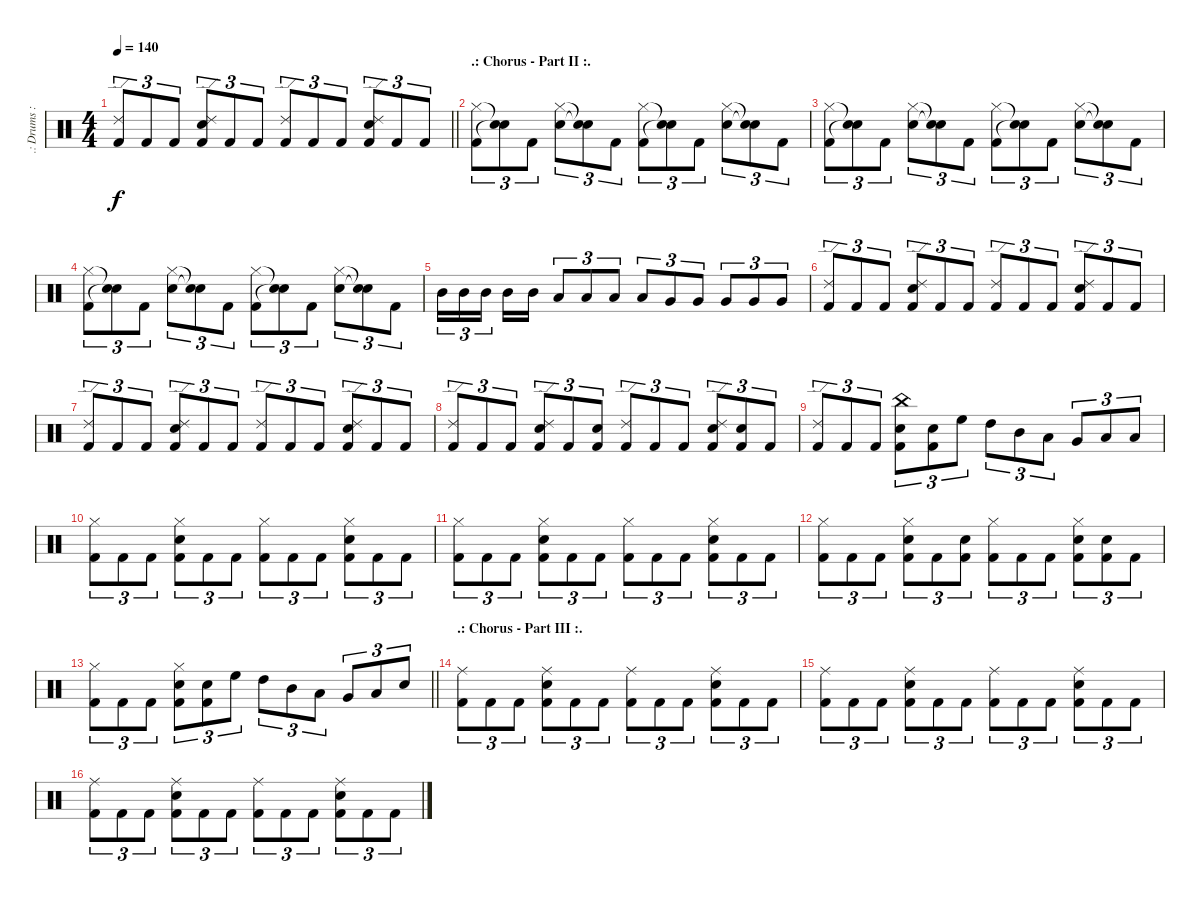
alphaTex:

\track (".: Drums :." ".: Drums :") {instrument percussion}
\staff {score}
\articulation defaults
\ts (4 4)
\tempo 140
\clef neutral
\barLineRight lightlight
\ks c
("Ride (edge) 2" "Kick (hit) 2").8{tu (3 2) dy f} "Kick (hit) 2".8{tu (3 2)} "Kick (hit) 2".8{tu (3 2)} ("Ride (edge) 2" "Snare (hit) 2" "Kick (hit) 2").8{tu (3 2)} "Kick (hit) 2".8{tu (3 2)} "Kick (hit) 2".8{tu (3 2)} ("Ride (edge) 2" "Kick (hit) 2").8{tu (3 2)} "Kick (hit) 2".8{tu (3 2)} "Kick (hit) 2".8{tu (3 2)} ("Ride (edge) 2" "Snare (hit) 2" "Kick (hit) 2").8{tu (3 2)} "Kick (hit) 2".8{tu (3 2)} "Kick (hit) 2".8{tu (3 2)} |
\section ("" ".: Chorus - Part II :.")
("Hi-Hat (closed)" "Kick (hit) 2").8{tu (3 2)} ("Snare (hit)"{t} "Snare (hit)"{t}).8{tu (3 2)} "Kick (hit) 2".8{tu (3 2)} ("Hi-Hat (closed)" "Snare (hit) 2").8{tu (3 2)} ("Snare (hit)"{t} "Snare (hit)"{t}).8{tu (3 2)} "Kick (hit) 2".8{tu (3 2)} ("Hi-Hat (closed)" "Kick (hit) 2").8{tu (3 2)} ("Snare (hit)"{t} "Snare (hit)"{t}).8{tu (3 2)} "Kick (hit) 2".8{tu (3 2)} ("Hi-Hat (closed)" "Snare (hit) 2").8{tu (3 2)} ("Snare (hit)"{t} "Snare (hit)"{t}).8{tu (3 2)} "Kick (hit) 2".8{tu (3 2)} |
("Hi-Hat (closed)" "Kick (hit) 2").8{tu (3 2)} ("Snare (hit)"{t} "Snare (hit)"{t}).8{tu (3 2)} "Kick (hit) 2".8{tu (3 2)} ("Hi-Hat (closed)" "Snare (hit) 2").8{tu (3 2)} ("Snare (hit)"{t} "Snare (hit)"{t}).8{tu (3 2)} "Kick (hit) 2".8{tu (3 2)} ("Hi-Hat (closed)" "Kick (hit) 2").8{tu (3 2)} ("Snare (hit)"{t} "Snare (hit)"{t}).8{tu (3 2)} "Kick (hit) 2".8{tu (3 2)} ("Hi-Hat (closed)" "Snare (hit) 2").8{tu (3 2)} ("Snare (hit)"{t} "Snare (hit)"{t}).8{tu (3 2)} "Kick (hit) 2".8{tu (3 2)} |
("Hi-Hat (closed)" "Kick (hit) 2").8{tu (3 2)} ("Snare (hit)"{t} "Snare (hit)"{t}).8{tu (3 2)} "Kick (hit) 2".8{tu (3 2)} ("Hi-Hat (closed)" "Snare (hit) 2").8{tu (3 2)} ("Snare (hit)"{t} "Snare (hit)"{t}).8{tu (3 2)} "Kick (hit) 2".8{tu (3 2)} ("Hi-Hat (closed)" "Kick (hit) 2").8{tu (3 2)} ("Snare (hit)"{t} "Snare (hit)"{t}).8{tu (3 2)} "Kick (hit) 2".8{tu (3 2)} ("Hi-Hat (closed)" "Snare (hit) 2").8{tu (3 2)} ("Snare (hit)"{t} "Snare (hit)"{t}).8{tu (3 2)} "Kick (hit) 2".8{tu (3 2)} |
"Mid Tom (hit)".16{tu (3 2)} "Mid Tom (hit)".16{tu (3 2)} "Mid Tom (hit)".16{tu (3 2)} "Mid Tom (hit)".16 "Mid Tom (hit)".16 "Low Tom (hit)".8{tu (3 2)} "Low Tom (hit)".8{tu (3 2)} "Low Tom (hit)".8{tu (3 2)} "Low Tom (hit)".8{tu (3 2)} "Very Low Tom (hit)".8{tu (3 2)} "Very Low Tom (hit)".8{tu (3 2)} "Very Low Tom (hit)".8{tu (3 2)} "Very Low Tom (hit)".8{tu (3 2)} "Very Low Tom (hit)".8{tu (3 2)} |
("Ride (edge) 2" "Kick (hit) 2").8{tu (3 2)} "Kick (hit) 2".8{tu (3 2)} "Kick (hit) 2".8{tu (3 2)} ("Ride (edge) 2" "Snare (hit) 2" "Kick (hit) 2").8{tu (3 2)} "Kick (hit) 2".8{tu (3 2)} "Kick (hit) 2".8{tu (3 2)} ("Ride (edge) 2" "Kick (hit) 2").8{tu (3 2)} "Kick (hit) 2".8{tu (3 2)} "Kick (hit) 2".8{tu (3 2)} ("Ride (edge) 2" "Snare (hit) 2" "Kick (hit) 2").8{tu (3 2)} "Kick (hit) 2".8{tu (3 2)} "Kick (hit) 2".8{tu (3 2)} |
("Ride (edge) 2" "Kick (hit) 2").8{tu (3 2)} "Kick (hit) 2".8{tu (3 2)} "Kick (hit) 2".8{tu (3 2)} ("Ride (edge) 2" "Snare (hit) 2" "Kick (hit) 2").8{tu (3 2)} "Kick (hit) 2".8{tu (3 2)} "Kick (hit) 2".8{tu (3 2)} ("Ride (edge) 2" "Kick (hit) 2").8{tu (3 2)} "Kick (hit) 2".8{tu (3 2)} "Kick (hit) 2".8{tu (3 2)} ("Ride (edge) 2" "Snare (hit) 2" "Kick (hit) 2").8{tu (3 2)} "Kick (hit) 2".8{tu (3 2)} "Kick (hit) 2".8{tu (3 2)} |
("Ride (edge) 2" "Kick (hit) 2").8{tu (3 2)} "Kick (hit) 2".8{tu (3 2)} "Kick (hit) 2".8{tu (3 2)} ("Ride (edge) 2" "Snare (hit) 2" "Kick (hit) 2").8{tu (3 2)} "Kick (hit) 2".8{tu (3 2)} ("Snare (hit) 2" "Kick (hit) 2").8{tu (3 2)} ("Ride (edge) 2" "Kick (hit) 2").8{tu (3 2)} "Kick (hit) 2".8{tu (3 2)} "Kick (hit) 2".8{tu (3 2)} ("Ride (edge) 2" "Snare (hit) 2" "Kick (hit) 2").8{tu (3 2)} ("Snare (hit) 2" "Kick (hit) 2").8{tu (3 2)} "Kick (hit) 2".8{tu (3 2)} |
("Ride (edge) 2" "Kick (hit) 2").8{tu (3 2)} "Kick (hit) 2".8{tu (3 2)} "Kick (hit) 2".8{tu (3 2)} ("China (hit)" "Snare (hit) 2" "Kick (hit) 2").8{tu (3 2)} ("Snare (hit) 2" "Kick (hit) 2").8{tu (3 2)} "High Floor Tom (hit)".8{tu (3 2)} "High Tom (hit)".8{tu (3 2)} "Mid Tom (hit)".8{tu (3 2)} "Low Tom (hit)".8{tu (3 2)} "Very Low Tom (hit)".8{tu (3 2)} "Low Floor Tom (hit)".8{tu (3 2)} "Low Floor Tom (hit)".8{tu (3 2)} |
("Hi-Hat (closed)" "Kick (hit) 2").8{tu (3 2)} "Kick (hit) 2".8{tu (3 2)} "Kick (hit) 2".8{tu (3 2)} ("Hi-Hat (closed)" "Snare (hit) 2" "Kick (hit) 2").8{tu (3 2)} "Kick (hit) 2".8{tu (3 2)} "Kick (hit) 2".8{tu (3 2)} ("Hi-Hat (closed)" "Kick (hit) 2").8{tu (3 2)} "Kick (hit) 2".8{tu (3 2)} "Kick (hit) 2".8{tu (3 2)} ("Hi-Hat (closed)" "Snare (hit) 2" "Kick (hit) 2").8{tu (3 2)} "Kick (hit) 2".8{tu (3 2)} "Kick (hit) 2".8{tu (3 2)} |
("Hi-Hat (closed)" "Kick (hit) 2").8{tu (3 2)} "Kick (hit) 2".8{tu (3 2)} "Kick (hit) 2".8{tu (3 2)} ("Hi-Hat (closed)" "Snare (hit) 2" "Kick (hit) 2").8{tu (3 2)} "Kick (hit) 2".8{tu (3 2)} "Kick (hit) 2".8{tu (3 2)} ("Hi-Hat (closed)" "Kick (hit) 2").8{tu (3 2)} "Kick (hit) 2".8{tu (3 2)} "Kick (hit) 2".8{tu (3 2)} ("Hi-Hat (closed)" "Snare (hit) 2" "Kick (hit) 2").8{tu (3 2)} "Kick (hit) 2".8{tu (3 2)} "Kick (hit) 2".8{tu (3 2)} |
("Hi-Hat (closed)" "Kick (hit) 2").8{tu (3 2)} "Kick (hit) 2".8{tu (3 2)} "Kick (hit) 2".8{tu (3 2)} ("Hi-Hat (closed)" "Snare (hit) 2" "Kick (hit) 2").8{tu (3 2)} "Kick (hit) 2".8{tu (3 2)} ("Snare (hit) 2" "Kick (hit) 2").8{tu (3 2)} ("Hi-Hat (closed)" "Kick (hit) 2").8{tu (3 2)} "Kick (hit) 2".8{tu (3 2)} "Kick (hit) 2".8{tu (3 2)} ("Hi-Hat (closed)" "Snare (hit) 2" "Kick (hit) 2").8{tu (3 2)} ("Snare (hit) 2" "Kick (hit) 2").8{tu (3 2)} "Kick (hit) 2".8{tu (3 2)} |
\barLineRight lightlight
("Hi-Hat (closed)" "Kick (hit) 2").8{tu (3 2)} "Kick (hit) 2".8{tu (3 2)} "Kick (hit) 2".8{tu (3 2)} ("Hi-Hat (closed)" "Snare (hit) 2" "Kick (hit) 2").8{tu (3 2)} ("Snare (hit) 2" "Kick (hit) 2").8{tu (3 2)} "High Floor Tom (hit)".8{tu (3 2)} "High Tom (hit)".8{tu (3 2)} "Mid Tom (hit)".8{tu (3 2)} "Low Tom (hit)".8{tu (3 2)} "Very Low Tom (hit)".8{tu (3 2)} "Low Floor Tom (hit)".8{tu (3 2)} "Snare (hit) 2".8{tu (3 2)} |
\section ("" ".: Chorus - Part III :.")
("Ride (middle)" "Kick (hit) 2").8{tu (3 2)} "Kick (hit) 2".8{tu (3 2)} "Kick (hit) 2".8{tu (3 2)} ("Ride (middle)" "Snare (hit) 2" "Kick (hit) 2").8{tu (3 2)} "Kick (hit) 2".8{tu (3 2)} "Kick (hit) 2".8{tu (3 2)} ("Ride (middle)" "Kick (hit) 2").8{tu (3 2)} "Kick (hit) 2".8{tu (3 2)} "Kick (hit) 2".8{tu (3 2)} ("Ride (middle)" "Snare (hit) 2" "Kick (hit) 2").8{tu (3 2)} "Kick (hit) 2".8{tu (3 2)} "Kick (hit) 2".8{tu (3 2)} |
("Ride (middle)" "Kick (hit) 2").8{tu (3 2)} "Kick (hit) 2".8{tu (3 2)} "Kick (hit) 2".8{tu (3 2)} ("Ride (middle)" "Snare (hit) 2" "Kick (hit) 2").8{tu (3 2)} "Kick (hit) 2".8{tu (3 2)} "Kick (hit) 2".8{tu (3 2)} ("Ride (middle)" "Kick (hit) 2").8{tu (3 2)} "Kick (hit) 2".8{tu (3 2)} "Kick (hit) 2".8{tu (3 2)} ("Ride (middle)" "Snare (hit) 2" "Kick (hit) 2").8{tu (3 2)} "Kick (hit) 2".8{tu (3 2)} "Kick (hit) 2".8{tu (3 2)} |
("Ride (middle)" "Kick (hit) 2").8{tu (3 2)} "Kick (hit) 2".8{tu (3 2)} "Kick (hit) 2".8{tu (3 2)} ("Ride (middle)" "Snare (hit) 2" "Kick (hit) 2").8{tu (3 2)} "Kick (hit) 2".8{tu (3 2)} "Kick (hit) 2".8{tu (3 2)} ("Ride (middle)" "Kick (hit) 2").8{tu (3 2)} "Kick (hit) 2".8{tu (3 2)} "Kick (hit) 2".8{tu (3 2)} ("Ride (middle)" "Snare (hit) 2" "Kick (hit) 2").8{tu (3 2)} "Kick (hit) 2".8{tu (3 2)} "Kick (hit) 2".8{tu (3 2)}
